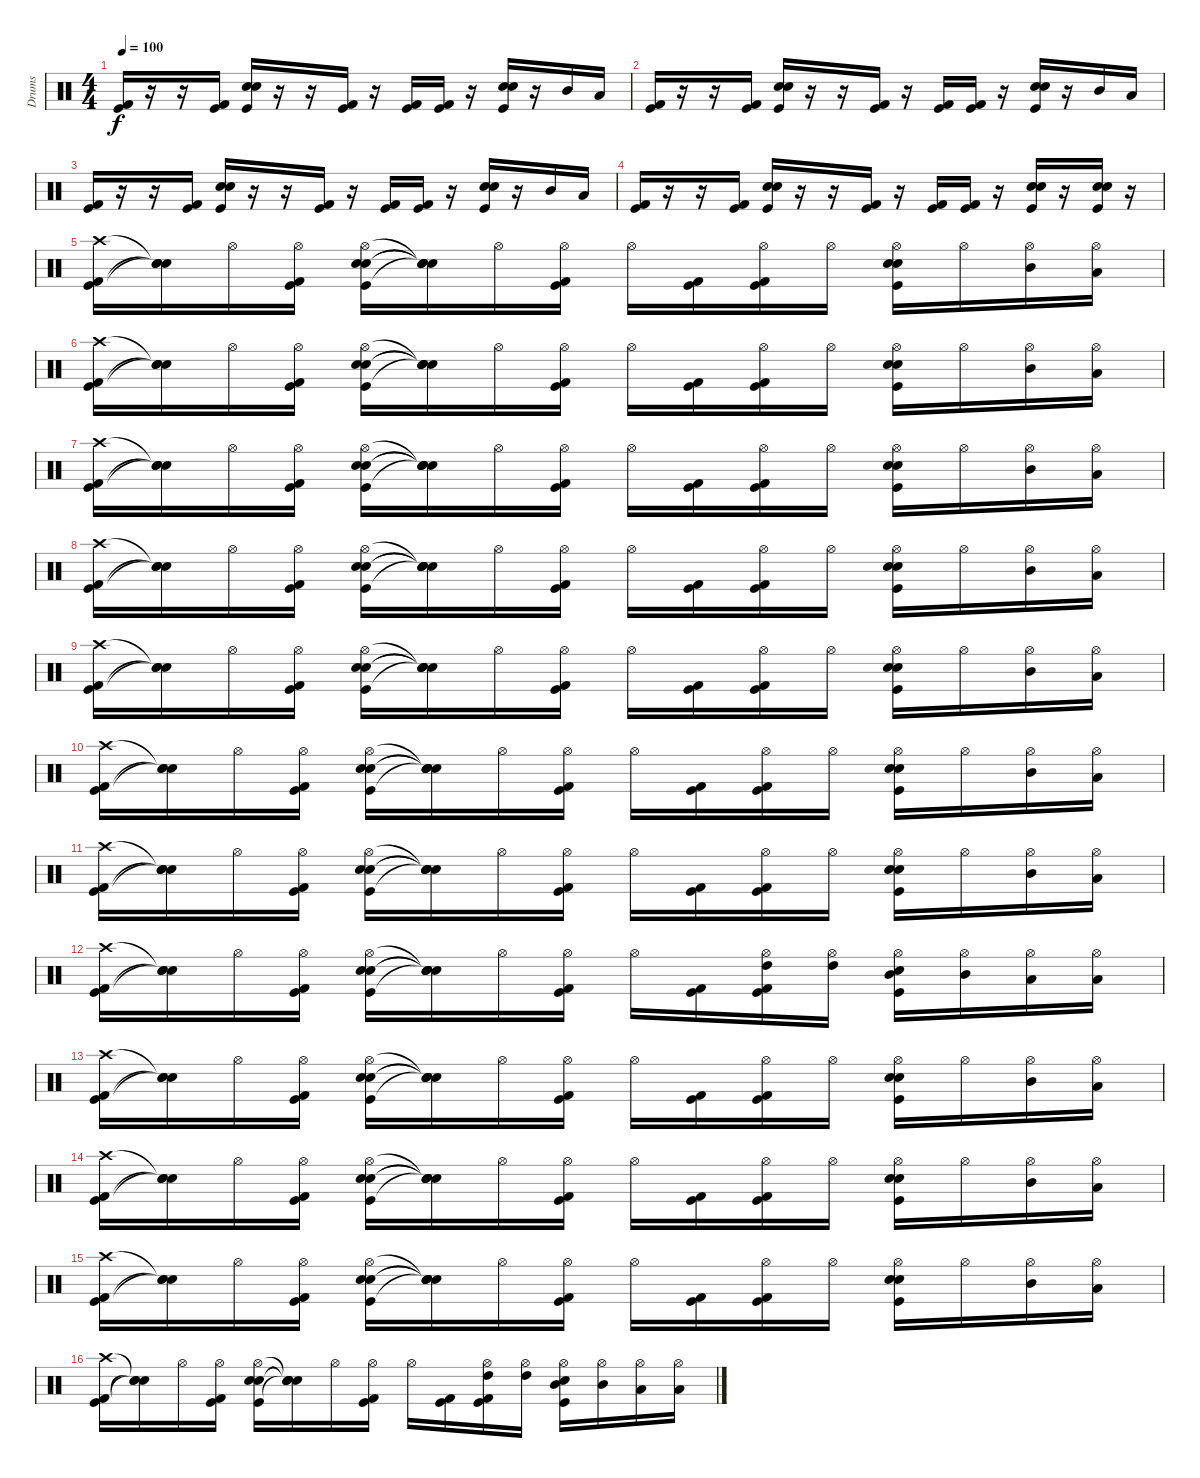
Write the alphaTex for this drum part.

\track ("Drums" "Drums") {instrument percussion}
\staff {score}
\articulation defaults
\ts (4 4)
\tempo 100
\clef neutral
\ks c
("Kick (hit) 2" "Kick (hit)").16{dy f} r.16 r.16 ("Kick (hit)" "Kick (hit) 2").16 ("Snare (hit) 2" "Kick (hit)" "Electric Snare (hit)").16 r.16 r.16 ("Kick (hit)" "Kick (hit) 2").16 r.16 ("Kick (hit)" "Kick (hit) 2").16 ("Kick (hit)" "Kick (hit) 2").16 r.16 ("Snare (hit) 2" "Kick (hit)" "Electric Snare (hit)").16 r.16 "Mid Tom (hit)".16 "Low Tom (hit)".16 |
("Kick (hit) 2" "Kick (hit)").16 r.16 r.16 ("Kick (hit)" "Kick (hit) 2").16 ("Snare (hit) 2" "Kick (hit)" "Electric Snare (hit)").16 r.16 r.16 ("Kick (hit)" "Kick (hit) 2").16 r.16 ("Kick (hit)" "Kick (hit) 2").16 ("Kick (hit)" "Kick (hit) 2").16 r.16 ("Snare (hit) 2" "Kick (hit)" "Electric Snare (hit)").16 r.16 "Mid Tom (hit)".16 "Low Tom (hit)".16 |
("Kick (hit) 2" "Kick (hit)").16 r.16 r.16 ("Kick (hit)" "Kick (hit) 2").16 ("Snare (hit) 2" "Kick (hit)" "Electric Snare (hit)").16 r.16 r.16 ("Kick (hit)" "Kick (hit) 2").16 r.16 ("Kick (hit)" "Kick (hit) 2").16 ("Kick (hit)" "Kick (hit) 2").16 r.16 ("Snare (hit) 2" "Kick (hit)" "Electric Snare (hit)").16 r.16 "Mid Tom (hit)".16 "Low Tom (hit)".16 |
("Kick (hit) 2" "Kick (hit)").16 r.16 r.16 ("Kick (hit)" "Kick (hit) 2").16 ("Snare (hit) 2" "Kick (hit)" "Electric Snare (hit)").16 r.16 r.16 ("Kick (hit)" "Kick (hit) 2").16 r.16 ("Kick (hit)" "Kick (hit) 2").16 ("Kick (hit)" "Kick (hit) 2").16 r.16 ("Snare (hit) 2" "Kick (hit)" "Electric Snare (hit)").16 r.16 ("Snare (hit) 2" "Kick (hit)" "Electric Snare (hit)").16 r.16 |
("Kick (hit) 2" "Kick (hit)" "Crash high (hit)").16 ("Snare (hit)"{t} "Snare (hit)"{t} "Snare (hit)"{t}).16 "Hi-Hat (open)".16 ("Kick (hit)" "Kick (hit) 2" "Hi-Hat (open)").16 ("Snare (hit) 2" "Kick (hit)" "Electric Snare (hit)" "Hi-Hat (open)").16 ("Snare (hit)"{t} "Snare (hit)"{t} "Snare (hit)"{t} "Snare (hit)"{t}).16 "Hi-Hat (open)".16 ("Kick (hit)" "Kick (hit) 2" "Hi-Hat (open)").16 "Hi-Hat (open)".16 ("Kick (hit)" "Kick (hit) 2").16 ("Kick (hit)" "Kick (hit) 2" "Hi-Hat (open)").16 "Hi-Hat (open)".16 ("Snare (hit) 2" "Kick (hit)" "Electric Snare (hit)" "Hi-Hat (open)").16 "Hi-Hat (open)".16 ("Mid Tom (hit)" "Hi-Hat (open)").16 ("Low Tom (hit)" "Hi-Hat (open)").16 |
("Kick (hit) 2" "Kick (hit)" "Crash high (hit)").16 ("Snare (hit)"{t} "Snare (hit)"{t} "Snare (hit)"{t}).16 "Hi-Hat (open)".16 ("Kick (hit)" "Kick (hit) 2" "Hi-Hat (open)").16 ("Snare (hit) 2" "Kick (hit)" "Electric Snare (hit)" "Hi-Hat (open)").16 ("Snare (hit)"{t} "Snare (hit)"{t} "Snare (hit)"{t} "Snare (hit)"{t}).16 "Hi-Hat (open)".16 ("Kick (hit)" "Kick (hit) 2" "Hi-Hat (open)").16 "Hi-Hat (open)".16 ("Kick (hit)" "Kick (hit) 2").16 ("Kick (hit)" "Kick (hit) 2" "Hi-Hat (open)").16 "Hi-Hat (open)".16 ("Snare (hit) 2" "Kick (hit)" "Electric Snare (hit)" "Hi-Hat (open)").16 "Hi-Hat (open)".16 ("Mid Tom (hit)" "Hi-Hat (open)").16 ("Low Tom (hit)" "Hi-Hat (open)").16 |
("Kick (hit) 2" "Kick (hit)" "Crash high (hit)").16 ("Snare (hit)"{t} "Snare (hit)"{t} "Snare (hit)"{t}).16 "Hi-Hat (open)".16 ("Kick (hit)" "Kick (hit) 2" "Hi-Hat (open)").16 ("Snare (hit) 2" "Kick (hit)" "Electric Snare (hit)" "Hi-Hat (open)").16 ("Snare (hit)"{t} "Snare (hit)"{t} "Snare (hit)"{t} "Snare (hit)"{t}).16 "Hi-Hat (open)".16 ("Kick (hit)" "Kick (hit) 2" "Hi-Hat (open)").16 "Hi-Hat (open)".16 ("Kick (hit)" "Kick (hit) 2").16 ("Kick (hit)" "Kick (hit) 2" "Hi-Hat (open)").16 "Hi-Hat (open)".16 ("Snare (hit) 2" "Kick (hit)" "Electric Snare (hit)" "Hi-Hat (open)").16 "Hi-Hat (open)".16 ("Mid Tom (hit)" "Hi-Hat (open)").16 ("Low Tom (hit)" "Hi-Hat (open)").16 |
("Kick (hit) 2" "Kick (hit)" "Crash high (hit)").16 ("Snare (hit)"{t} "Snare (hit)"{t} "Snare (hit)"{t}).16 "Hi-Hat (open)".16 ("Kick (hit)" "Kick (hit) 2" "Hi-Hat (open)").16 ("Snare (hit) 2" "Kick (hit)" "Electric Snare (hit)" "Hi-Hat (open)").16 ("Snare (hit)"{t} "Snare (hit)"{t} "Snare (hit)"{t} "Snare (hit)"{t}).16 "Hi-Hat (open)".16 ("Kick (hit)" "Kick (hit) 2" "Hi-Hat (open)").16 "Hi-Hat (open)".16 ("Kick (hit)" "Kick (hit) 2").16 ("Kick (hit)" "Kick (hit) 2" "Hi-Hat (open)").16 "Hi-Hat (open)".16 ("Snare (hit) 2" "Kick (hit)" "Electric Snare (hit)" "Hi-Hat (open)").16 "Hi-Hat (open)".16 ("Mid Tom (hit)" "Hi-Hat (open)").16 ("Low Tom (hit)" "Hi-Hat (open)").16 |
("Kick (hit) 2" "Kick (hit)" "Crash high (hit)").16 ("Snare (hit)"{t} "Snare (hit)"{t} "Snare (hit)"{t}).16 "Hi-Hat (open)".16 ("Kick (hit)" "Kick (hit) 2" "Hi-Hat (open)").16 ("Snare (hit) 2" "Kick (hit)" "Electric Snare (hit)" "Hi-Hat (open)").16 ("Snare (hit)"{t} "Snare (hit)"{t} "Snare (hit)"{t} "Snare (hit)"{t}).16 "Hi-Hat (open)".16 ("Kick (hit)" "Kick (hit) 2" "Hi-Hat (open)").16 "Hi-Hat (open)".16 ("Kick (hit)" "Kick (hit) 2").16 ("Kick (hit)" "Kick (hit) 2" "Hi-Hat (open)").16 "Hi-Hat (open)".16 ("Snare (hit) 2" "Kick (hit)" "Electric Snare (hit)" "Hi-Hat (open)").16 "Hi-Hat (open)".16 ("Mid Tom (hit)" "Hi-Hat (open)").16 ("Low Tom (hit)" "Hi-Hat (open)").16 |
("Kick (hit) 2" "Kick (hit)" "Crash high (hit)").16 ("Snare (hit)"{t} "Snare (hit)"{t} "Snare (hit)"{t}).16 "Hi-Hat (open)".16 ("Kick (hit)" "Kick (hit) 2" "Hi-Hat (open)").16 ("Snare (hit) 2" "Kick (hit)" "Electric Snare (hit)" "Hi-Hat (open)").16 ("Snare (hit)"{t} "Snare (hit)"{t} "Snare (hit)"{t} "Snare (hit)"{t}).16 "Hi-Hat (open)".16 ("Kick (hit)" "Kick (hit) 2" "Hi-Hat (open)").16 "Hi-Hat (open)".16 ("Kick (hit)" "Kick (hit) 2").16 ("Kick (hit)" "Kick (hit) 2" "Hi-Hat (open)").16 "Hi-Hat (open)".16 ("Snare (hit) 2" "Kick (hit)" "Electric Snare (hit)" "Hi-Hat (open)").16 "Hi-Hat (open)".16 ("Mid Tom (hit)" "Hi-Hat (open)").16 ("Low Tom (hit)" "Hi-Hat (open)").16 |
("Kick (hit) 2" "Kick (hit)" "Crash high (hit)").16 ("Snare (hit)"{t} "Snare (hit)"{t} "Snare (hit)"{t}).16 "Hi-Hat (open)".16 ("Kick (hit)" "Kick (hit) 2" "Hi-Hat (open)").16 ("Snare (hit) 2" "Kick (hit)" "Electric Snare (hit)" "Hi-Hat (open)").16 ("Snare (hit)"{t} "Snare (hit)"{t} "Snare (hit)"{t} "Snare (hit)"{t}).16 "Hi-Hat (open)".16 ("Kick (hit)" "Kick (hit) 2" "Hi-Hat (open)").16 "Hi-Hat (open)".16 ("Kick (hit)" "Kick (hit) 2").16 ("Kick (hit)" "Kick (hit) 2" "Hi-Hat (open)").16 "Hi-Hat (open)".16 ("Snare (hit) 2" "Kick (hit)" "Electric Snare (hit)" "Hi-Hat (open)").16 "Hi-Hat (open)".16 ("Mid Tom (hit)" "Hi-Hat (open)").16 ("Low Tom (hit)" "Hi-Hat (open)").16 |
("Kick (hit) 2" "Kick (hit)" "Crash high (hit)").16 ("Snare (hit)"{t} "Snare (hit)"{t} "Snare (hit)"{t}).16 "Hi-Hat (open)".16 ("Kick (hit)" "Kick (hit) 2" "Hi-Hat (open)").16 ("Snare (hit) 2" "Kick (hit)" "Electric Snare (hit)" "Hi-Hat (open)").16 ("Snare (hit)"{t} "Snare (hit)"{t} "Snare (hit)"{t} "Snare (hit)"{t}).16 "Hi-Hat (open)".16 ("Kick (hit)" "Kick (hit) 2" "Hi-Hat (open)").16 "Hi-Hat (open)".16 ("Kick (hit)" "Kick (hit) 2").16 ("High Tom (hit)" "Kick (hit)" "Kick (hit) 2" "Hi-Hat (open)").16 ("High Tom (hit)" "Hi-Hat (open)").16 ("Mid Tom (hit)" "Kick (hit)" "Electric Snare (hit)" "Hi-Hat (open)").16 ("Mid Tom (hit)" "Hi-Hat (open)").16 ("Low Tom (hit)" "Hi-Hat (open)").16 ("Low Floor Tom (hit)" "Hi-Hat (open)").16 |
("Kick (hit) 2" "Kick (hit)" "Crash high (hit)").16 ("Snare (hit)"{t} "Snare (hit)"{t} "Snare (hit)"{t}).16 "Hi-Hat (open)".16 ("Kick (hit)" "Kick (hit) 2" "Hi-Hat (open)").16 ("Snare (hit) 2" "Kick (hit)" "Electric Snare (hit)" "Hi-Hat (open)").16 ("Snare (hit)"{t} "Snare (hit)"{t} "Snare (hit)"{t} "Snare (hit)"{t}).16 "Hi-Hat (open)".16 ("Kick (hit)" "Kick (hit) 2" "Hi-Hat (open)").16 "Hi-Hat (open)".16 ("Kick (hit)" "Kick (hit) 2").16 ("Kick (hit)" "Kick (hit) 2" "Hi-Hat (open)").16 "Hi-Hat (open)".16 ("Snare (hit) 2" "Kick (hit)" "Electric Snare (hit)" "Hi-Hat (open)").16 "Hi-Hat (open)".16 ("Mid Tom (hit)" "Hi-Hat (open)").16 ("Low Tom (hit)" "Hi-Hat (open)").16 |
("Kick (hit) 2" "Kick (hit)" "Crash high (hit)").16 ("Snare (hit)"{t} "Snare (hit)"{t} "Snare (hit)"{t}).16 "Hi-Hat (open)".16 ("Kick (hit)" "Kick (hit) 2" "Hi-Hat (open)").16 ("Snare (hit) 2" "Kick (hit)" "Electric Snare (hit)" "Hi-Hat (open)").16 ("Snare (hit)"{t} "Snare (hit)"{t} "Snare (hit)"{t} "Snare (hit)"{t}).16 "Hi-Hat (open)".16 ("Kick (hit)" "Kick (hit) 2" "Hi-Hat (open)").16 "Hi-Hat (open)".16 ("Kick (hit)" "Kick (hit) 2").16 ("Kick (hit)" "Kick (hit) 2" "Hi-Hat (open)").16 "Hi-Hat (open)".16 ("Snare (hit) 2" "Kick (hit)" "Electric Snare (hit)" "Hi-Hat (open)").16 "Hi-Hat (open)".16 ("Mid Tom (hit)" "Hi-Hat (open)").16 ("Low Tom (hit)" "Hi-Hat (open)").16 |
("Kick (hit) 2" "Kick (hit)" "Crash high (hit)").16 ("Snare (hit)"{t} "Snare (hit)"{t} "Snare (hit)"{t}).16 "Hi-Hat (open)".16 ("Kick (hit)" "Kick (hit) 2" "Hi-Hat (open)").16 ("Snare (hit) 2" "Kick (hit)" "Electric Snare (hit)" "Hi-Hat (open)").16 ("Snare (hit)"{t} "Snare (hit)"{t} "Snare (hit)"{t} "Snare (hit)"{t}).16 "Hi-Hat (open)".16 ("Kick (hit)" "Kick (hit) 2" "Hi-Hat (open)").16 "Hi-Hat (open)".16 ("Kick (hit)" "Kick (hit) 2").16 ("Kick (hit)" "Kick (hit) 2" "Hi-Hat (open)").16 "Hi-Hat (open)".16 ("Snare (hit) 2" "Kick (hit)" "Electric Snare (hit)" "Hi-Hat (open)").16 "Hi-Hat (open)".16 ("Mid Tom (hit)" "Hi-Hat (open)").16 ("Low Tom (hit)" "Hi-Hat (open)").16 |
("Kick (hit) 2" "Kick (hit)" "Crash high (hit)").16 ("Snare (hit)"{t} "Snare (hit)"{t} "Snare (hit)"{t}).16 "Hi-Hat (open)".16 ("Kick (hit)" "Kick (hit) 2" "Hi-Hat (open)").16 ("Snare (hit) 2" "Kick (hit)" "Electric Snare (hit)" "Hi-Hat (open)").16 ("Snare (hit)"{t} "Snare (hit)"{t} "Snare (hit)"{t} "Snare (hit)"{t}).16 "Hi-Hat (open)".16 ("Kick (hit)" "Kick (hit) 2" "Hi-Hat (open)").16 "Hi-Hat (open)".16 ("Kick (hit)" "Kick (hit) 2").16 ("High Tom (hit)" "Kick (hit)" "Kick (hit) 2" "Hi-Hat (open)").16 ("High Tom (hit)" "Hi-Hat (open)").16 ("Mid Tom (hit)" "Kick (hit)" "Electric Snare (hit)" "Hi-Hat (open)").16 ("Mid Tom (hit)" "Hi-Hat (open)").16 ("Low Tom (hit)" "Hi-Hat (open)").16 ("Low Floor Tom (hit)" "Hi-Hat (open)").16
